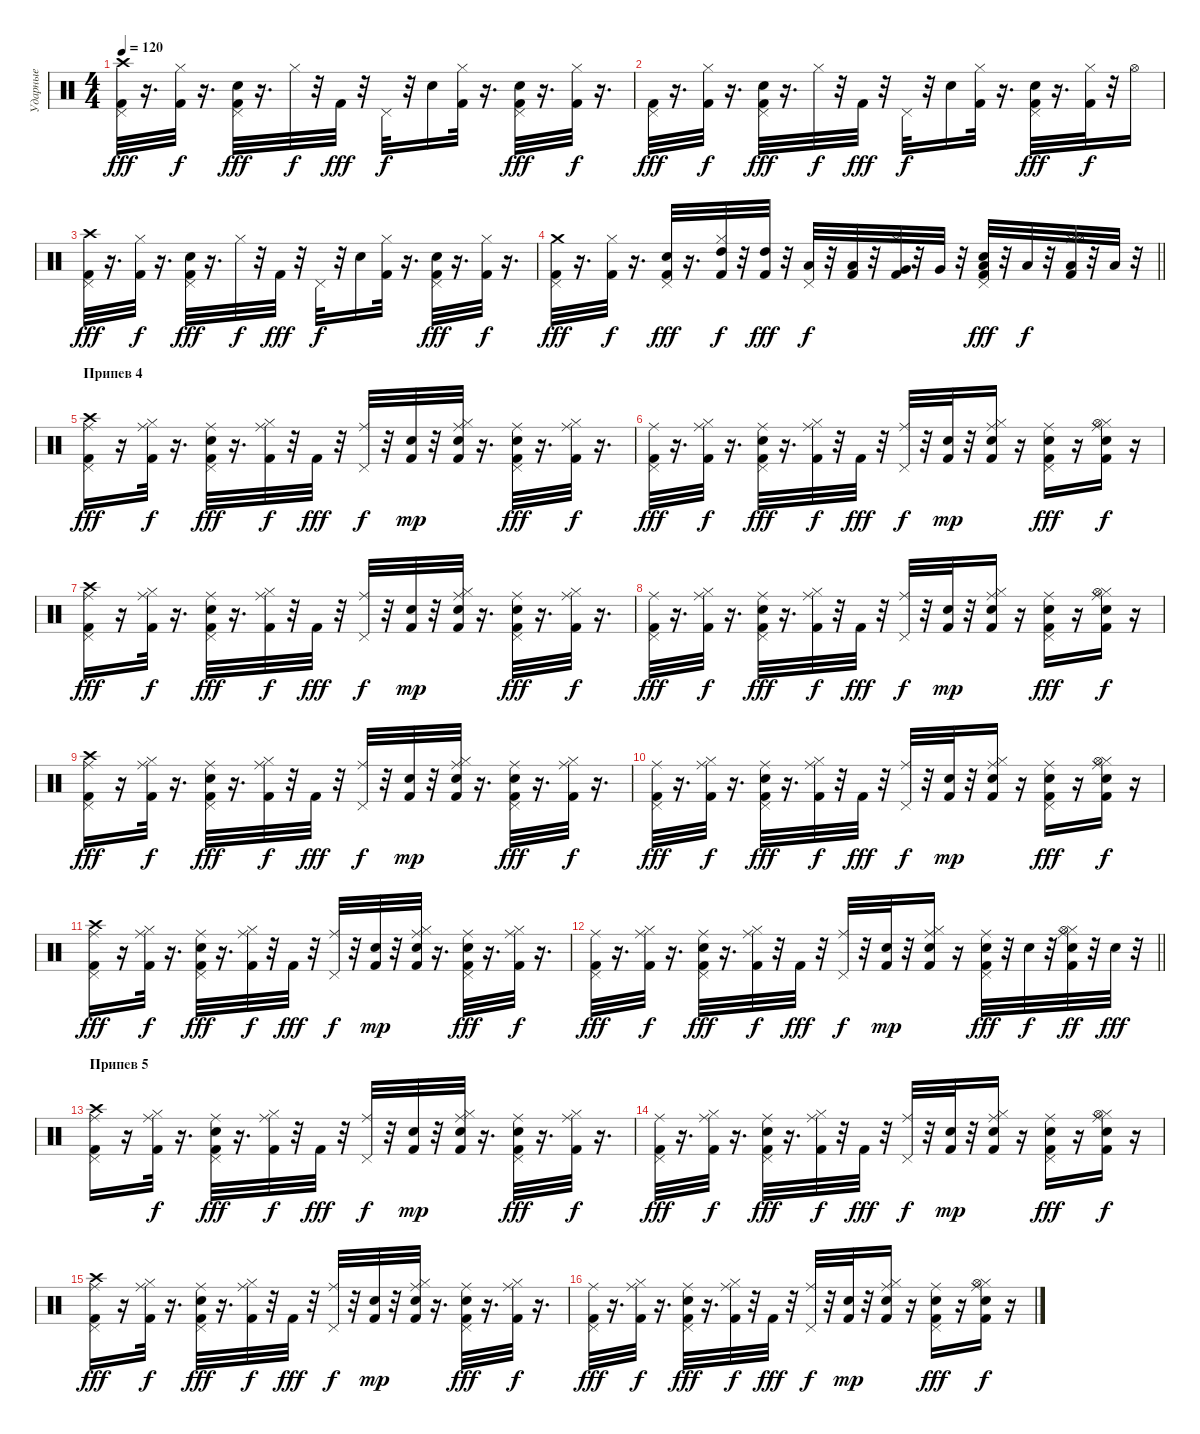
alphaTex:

\track ("Ударные" "Ударные") {instrument percussion}
\staff {score}
\articulation defaults
\ts (4 4)
\tempo 120
\clef neutral
\ks c
("Kick (hit) 2" "Pedal Hi-Hat (hit)" "Crash high (hit)").32{dy fff} r.16{d} ("Kick (hit) 2" "Hi-Hat (closed)").32{dy f} r.16{d} ("Kick (hit) 2" "Snare (hit) 2" "Pedal Hi-Hat (hit)").32{dy fff} r.16{d} "Hi-Hat (closed)".32{dy f} r.32 "Kick (hit) 2".32{dy fff} r.32 "Pedal Hi-Hat (hit)".32{dy f} r.32 "Snare (hit) 2".16 ("Kick (hit) 2" "Hi-Hat (closed)").32 r.16{d} ("Kick (hit) 2" "Snare (hit) 2" "Pedal Hi-Hat (hit)").32{dy fff} r.16{d} ("Kick (hit) 2" "Hi-Hat (closed)").32{dy f} r.16{d} |
("Kick (hit) 2" "Pedal Hi-Hat (hit)").32{dy fff} r.16{d} ("Kick (hit) 2" "Hi-Hat (closed)").32{dy f} r.16{d} ("Kick (hit) 2" "Snare (hit) 2" "Pedal Hi-Hat (hit)").32{dy fff} r.16{d} "Hi-Hat (closed)".32{dy f} r.32 "Kick (hit) 2".32{dy fff} r.32 "Pedal Hi-Hat (hit)".32{dy f} r.32 "Snare (hit) 2".16 ("Kick (hit) 2" "Hi-Hat (closed)").32 r.16{d} ("Kick (hit) 2" "Snare (hit) 2" "Pedal Hi-Hat (hit)").32{dy fff} r.16{d} ("Kick (hit) 2" "Hi-Hat (closed)").32{dy f} r.32 "Hi-Hat (open)".16 |
("Kick (hit) 2" "Pedal Hi-Hat (hit)" "Crash high (hit)").32{dy fff} r.16{d} ("Kick (hit) 2" "Hi-Hat (closed)").32{dy f} r.16{d} ("Kick (hit) 2" "Snare (hit) 2" "Pedal Hi-Hat (hit)").32{dy fff} r.16{d} "Hi-Hat (closed)".32{dy f} r.32 "Kick (hit) 2".32{dy fff} r.32 "Pedal Hi-Hat (hit)".32{dy f} r.32 "Snare (hit) 2".16 ("Kick (hit) 2" "Hi-Hat (closed)").32 r.16{d} ("Kick (hit) 2" "Snare (hit) 2" "Pedal Hi-Hat (hit)").32{dy fff} r.16{d} ("Kick (hit) 2" "Hi-Hat (closed)").32{dy f} r.16{d} |
\barLineRight lightlight
("Kick (hit) 2" "Pedal Hi-Hat (hit)" "Crash medium (hit)").32{dy fff} r.16{d} ("Kick (hit) 2" "Hi-Hat (closed)").32{dy f} r.16{d} ("Kick (hit) 2" "Snare (hit) 2" "Pedal Hi-Hat (hit)").32{dy fff} r.16{d} ("Kick (hit) 2" "Hi-Hat (closed)" "High Tom (hit)").32{dy f} r.32 ("Kick (hit) 2" "High Tom (hit)").32{dy fff} r.32 ("Pedal Hi-Hat (hit)" "Low Tom (hit)").32{dy f} r.32 ("Kick (hit) 2" "Low Tom (hit)").32 r.32 ("Kick (hit) 2" "Hi-Hat (closed)" "Very Low Tom (hit)").32 r.32 "Very Low Tom (hit)".32 r.32 ("Kick (hit) 2" "Snare (hit) 2" "Low Floor Tom (hit)" "Pedal Hi-Hat (hit)").32{dy fff} r.32 "Low Floor Tom (hit)".32{dy f} r.32 ("Kick (hit) 2" "Low Floor Tom (hit)" "Hi-Hat (closed)" "Hi-Hat (open)").32 r.32 "Low Floor Tom (hit)".32 r.32 |
\section ("" "Припев 4")
("Kick (hit) 2" "Pedal Hi-Hat (hit)" "Crash high (hit)" "Ride (middle)").16{dy fff} r.16 ("Kick (hit) 2" "Hi-Hat (closed)" "Ride (middle)").32{dy f} r.16{d} ("Kick (hit) 2" "Snare (hit) 2" "Pedal Hi-Hat (hit)" "Ride (middle)").32{dy fff} r.16{d} ("Kick (hit) 2" "Hi-Hat (closed)" "Ride (middle)").32{dy f} r.32 "Kick (hit) 2".32{dy fff} r.32 ("Pedal Hi-Hat (hit)" "Ride (middle)").32{dy f} r.32 ("Kick (hit) 2" "Snare (hit) 2").32{dy mp} r.32 ("Kick (hit) 2" "Snare (hit) 2" "Hi-Hat (closed)" "Ride (middle)").32 r.16{d} ("Kick (hit) 2" "Snare (hit) 2" "Pedal Hi-Hat (hit)" "Ride (middle)").32{dy fff} r.16{d} ("Kick (hit) 2" "Hi-Hat (closed)" "Ride (middle)").32{dy f} r.16{d} |
("Kick (hit) 2" "Pedal Hi-Hat (hit)" "Ride (middle)").32{dy fff} r.16{d} ("Kick (hit) 2" "Hi-Hat (closed)" "Ride (middle)").32{dy f} r.16{d} ("Kick (hit) 2" "Snare (hit) 2" "Pedal Hi-Hat (hit)" "Ride (middle)").32{dy fff} r.16{d} ("Kick (hit) 2" "Hi-Hat (closed)" "Ride (middle)").32{dy f} r.32 "Kick (hit) 2".32{dy fff} r.32 ("Pedal Hi-Hat (hit)" "Ride (middle)").32{dy f} r.32 ("Kick (hit) 2" "Snare (hit) 2").32{dy mp} r.32 ("Kick (hit) 2" "Snare (hit) 2" "Hi-Hat (closed)" "Ride (middle)").16 r.16 ("Kick (hit) 2" "Snare (hit) 2" "Pedal Hi-Hat (hit)" "Ride (middle)").16{dy fff} r.16 ("Kick (hit) 2" "Snare (hit) 2" "Hi-Hat (closed)" "Hi-Hat (open)" "Ride (middle)").16{dy f} r.16 |
("Kick (hit) 2" "Pedal Hi-Hat (hit)" "Crash high (hit)" "Ride (middle)").16{dy fff} r.16 ("Kick (hit) 2" "Hi-Hat (closed)" "Ride (middle)").32{dy f} r.16{d} ("Kick (hit) 2" "Snare (hit) 2" "Pedal Hi-Hat (hit)" "Ride (middle)").32{dy fff} r.16{d} ("Kick (hit) 2" "Hi-Hat (closed)" "Ride (middle)").32{dy f} r.32 "Kick (hit) 2".32{dy fff} r.32 ("Pedal Hi-Hat (hit)" "Ride (middle)").32{dy f} r.32 ("Kick (hit) 2" "Snare (hit) 2").32{dy mp} r.32 ("Kick (hit) 2" "Snare (hit) 2" "Hi-Hat (closed)" "Ride (middle)").32 r.16{d} ("Kick (hit) 2" "Snare (hit) 2" "Pedal Hi-Hat (hit)" "Ride (middle)").32{dy fff} r.16{d} ("Kick (hit) 2" "Hi-Hat (closed)" "Ride (middle)").32{dy f} r.16{d} |
("Kick (hit) 2" "Pedal Hi-Hat (hit)" "Ride (middle)").32{dy fff} r.16{d} ("Kick (hit) 2" "Hi-Hat (closed)" "Ride (middle)").32{dy f} r.16{d} ("Kick (hit) 2" "Snare (hit) 2" "Pedal Hi-Hat (hit)" "Ride (middle)").32{dy fff} r.16{d} ("Kick (hit) 2" "Hi-Hat (closed)" "Ride (middle)").32{dy f} r.32 "Kick (hit) 2".32{dy fff} r.32 ("Pedal Hi-Hat (hit)" "Ride (middle)").32{dy f} r.32 ("Kick (hit) 2" "Snare (hit) 2").32{dy mp} r.32 ("Kick (hit) 2" "Snare (hit) 2" "Hi-Hat (closed)" "Ride (middle)").16 r.16 ("Kick (hit) 2" "Snare (hit) 2" "Pedal Hi-Hat (hit)" "Ride (middle)").16{dy fff} r.16 ("Kick (hit) 2" "Snare (hit) 2" "Hi-Hat (closed)" "Hi-Hat (open)" "Ride (middle)").16{dy f} r.16 |
("Kick (hit) 2" "Pedal Hi-Hat (hit)" "Crash high (hit)" "Ride (middle)").16{dy fff} r.16 ("Kick (hit) 2" "Hi-Hat (closed)" "Ride (middle)").32{dy f} r.16{d} ("Kick (hit) 2" "Snare (hit) 2" "Pedal Hi-Hat (hit)" "Ride (middle)").32{dy fff} r.16{d} ("Kick (hit) 2" "Hi-Hat (closed)" "Ride (middle)").32{dy f} r.32 "Kick (hit) 2".32{dy fff} r.32 ("Pedal Hi-Hat (hit)" "Ride (middle)").32{dy f} r.32 ("Kick (hit) 2" "Snare (hit) 2").32{dy mp} r.32 ("Kick (hit) 2" "Snare (hit) 2" "Hi-Hat (closed)" "Ride (middle)").32 r.16{d} ("Kick (hit) 2" "Snare (hit) 2" "Pedal Hi-Hat (hit)" "Ride (middle)").32{dy fff} r.16{d} ("Kick (hit) 2" "Hi-Hat (closed)" "Ride (middle)").32{dy f} r.16{d} |
("Kick (hit) 2" "Pedal Hi-Hat (hit)" "Ride (middle)").32{dy fff} r.16{d} ("Kick (hit) 2" "Hi-Hat (closed)" "Ride (middle)").32{dy f} r.16{d} ("Kick (hit) 2" "Snare (hit) 2" "Pedal Hi-Hat (hit)" "Ride (middle)").32{dy fff} r.16{d} ("Kick (hit) 2" "Hi-Hat (closed)" "Ride (middle)").32{dy f} r.32 "Kick (hit) 2".32{dy fff} r.32 ("Pedal Hi-Hat (hit)" "Ride (middle)").32{dy f} r.32 ("Kick (hit) 2" "Snare (hit) 2").32{dy mp} r.32 ("Kick (hit) 2" "Snare (hit) 2" "Hi-Hat (closed)" "Ride (middle)").16 r.16 ("Kick (hit) 2" "Snare (hit) 2" "Pedal Hi-Hat (hit)" "Ride (middle)").16{dy fff} r.16 ("Kick (hit) 2" "Snare (hit) 2" "Hi-Hat (closed)" "Hi-Hat (open)" "Ride (middle)").16{dy f} r.16 |
("Kick (hit) 2" "Pedal Hi-Hat (hit)" "Crash high (hit)" "Ride (middle)").16{dy fff} r.16 ("Kick (hit) 2" "Hi-Hat (closed)" "Ride (middle)").32{dy f} r.16{d} ("Kick (hit) 2" "Snare (hit) 2" "Pedal Hi-Hat (hit)" "Ride (middle)").32{dy fff} r.16{d} ("Kick (hit) 2" "Hi-Hat (closed)" "Ride (middle)").32{dy f} r.32 "Kick (hit) 2".32{dy fff} r.32 ("Pedal Hi-Hat (hit)" "Ride (middle)").32{dy f} r.32 ("Kick (hit) 2" "Snare (hit) 2").32{dy mp} r.32 ("Kick (hit) 2" "Snare (hit) 2" "Hi-Hat (closed)" "Ride (middle)").32 r.16{d} ("Kick (hit) 2" "Snare (hit) 2" "Pedal Hi-Hat (hit)" "Ride (middle)").32{dy fff} r.16{d} ("Kick (hit) 2" "Hi-Hat (closed)" "Ride (middle)").32{dy f} r.16{d} |
\barLineRight lightlight
("Kick (hit) 2" "Pedal Hi-Hat (hit)" "Ride (middle)").32{dy fff} r.16{d} ("Kick (hit) 2" "Hi-Hat (closed)" "Ride (middle)").32{dy f} r.16{d} ("Kick (hit) 2" "Snare (hit) 2" "Pedal Hi-Hat (hit)" "Ride (middle)").32{dy fff} r.16{d} ("Kick (hit) 2" "Hi-Hat (closed)" "Ride (middle)").32{dy f} r.32 "Kick (hit) 2".32{dy fff} r.32 ("Pedal Hi-Hat (hit)" "Ride (middle)").32{dy f} r.32 ("Kick (hit) 2" "Snare (hit) 2").32{dy mp} r.32 ("Kick (hit) 2" "Snare (hit) 2" "Hi-Hat (closed)" "Ride (middle)").16 r.16 ("Kick (hit) 2" "Snare (hit) 2" "Pedal Hi-Hat (hit)" "Ride (middle)").32{dy fff} r.32 "Snare (hit) 2".32{dy f} r.32 ("Kick (hit) 2" "Snare (hit) 2" "Hi-Hat (closed)" "Hi-Hat (open)" "Ride (middle)").32{dy ff} r.32 "Snare (hit) 2".32{dy fff} r.32 |
\section ("" "Припев 5")
("Kick (hit) 2" "Pedal Hi-Hat (hit)" "Crash high (hit)" "Ride (middle)").16 r.16 ("Kick (hit) 2" "Hi-Hat (closed)" "Ride (middle)").32{dy f} r.16{d} ("Kick (hit) 2" "Snare (hit) 2" "Pedal Hi-Hat (hit)" "Ride (middle)").32{dy fff} r.16{d} ("Kick (hit) 2" "Hi-Hat (closed)" "Ride (middle)").32{dy f} r.32 "Kick (hit) 2".32{dy fff} r.32 ("Pedal Hi-Hat (hit)" "Ride (middle)").32{dy f} r.32 ("Kick (hit) 2" "Snare (hit) 2").32{dy mp} r.32 ("Kick (hit) 2" "Snare (hit) 2" "Hi-Hat (closed)" "Ride (middle)").32 r.16{d} ("Kick (hit) 2" "Snare (hit) 2" "Pedal Hi-Hat (hit)" "Ride (middle)").32{dy fff} r.16{d} ("Kick (hit) 2" "Hi-Hat (closed)" "Ride (middle)").32{dy f} r.16{d} |
("Kick (hit) 2" "Pedal Hi-Hat (hit)" "Ride (middle)").32{dy fff} r.16{d} ("Kick (hit) 2" "Hi-Hat (closed)" "Ride (middle)").32{dy f} r.16{d} ("Kick (hit) 2" "Snare (hit) 2" "Pedal Hi-Hat (hit)" "Ride (middle)").32{dy fff} r.16{d} ("Kick (hit) 2" "Hi-Hat (closed)" "Ride (middle)").32{dy f} r.32 "Kick (hit) 2".32{dy fff} r.32 ("Pedal Hi-Hat (hit)" "Ride (middle)").32{dy f} r.32 ("Kick (hit) 2" "Snare (hit) 2").32{dy mp} r.32 ("Kick (hit) 2" "Snare (hit) 2" "Hi-Hat (closed)" "Ride (middle)").16 r.16 ("Kick (hit) 2" "Snare (hit) 2" "Pedal Hi-Hat (hit)" "Ride (middle)").16{dy fff} r.16 ("Kick (hit) 2" "Snare (hit) 2" "Hi-Hat (closed)" "Hi-Hat (open)" "Ride (middle)").16{dy f} r.16 |
("Kick (hit) 2" "Pedal Hi-Hat (hit)" "Crash high (hit)" "Ride (middle)").16{dy fff} r.16 ("Kick (hit) 2" "Hi-Hat (closed)" "Ride (middle)").32{dy f} r.16{d} ("Kick (hit) 2" "Snare (hit) 2" "Pedal Hi-Hat (hit)" "Ride (middle)").32{dy fff} r.16{d} ("Kick (hit) 2" "Hi-Hat (closed)" "Ride (middle)").32{dy f} r.32 "Kick (hit) 2".32{dy fff} r.32 ("Pedal Hi-Hat (hit)" "Ride (middle)").32{dy f} r.32 ("Kick (hit) 2" "Snare (hit) 2").32{dy mp} r.32 ("Kick (hit) 2" "Snare (hit) 2" "Hi-Hat (closed)" "Ride (middle)").32 r.16{d} ("Kick (hit) 2" "Snare (hit) 2" "Pedal Hi-Hat (hit)" "Ride (middle)").32{dy fff} r.16{d} ("Kick (hit) 2" "Hi-Hat (closed)" "Ride (middle)").32{dy f} r.16{d} |
("Kick (hit) 2" "Pedal Hi-Hat (hit)" "Ride (middle)").32{dy fff} r.16{d} ("Kick (hit) 2" "Hi-Hat (closed)" "Ride (middle)").32{dy f} r.16{d} ("Kick (hit) 2" "Snare (hit) 2" "Pedal Hi-Hat (hit)" "Ride (middle)").32{dy fff} r.16{d} ("Kick (hit) 2" "Hi-Hat (closed)" "Ride (middle)").32{dy f} r.32 "Kick (hit) 2".32{dy fff} r.32 ("Pedal Hi-Hat (hit)" "Ride (middle)").32{dy f} r.32 ("Kick (hit) 2" "Snare (hit) 2").32{dy mp} r.32 ("Kick (hit) 2" "Snare (hit) 2" "Hi-Hat (closed)" "Ride (middle)").16 r.16 ("Kick (hit) 2" "Snare (hit) 2" "Pedal Hi-Hat (hit)" "Ride (middle)").16{dy fff} r.16 ("Kick (hit) 2" "Snare (hit) 2" "Hi-Hat (closed)" "Hi-Hat (open)" "Ride (middle)").16{dy f} r.16
